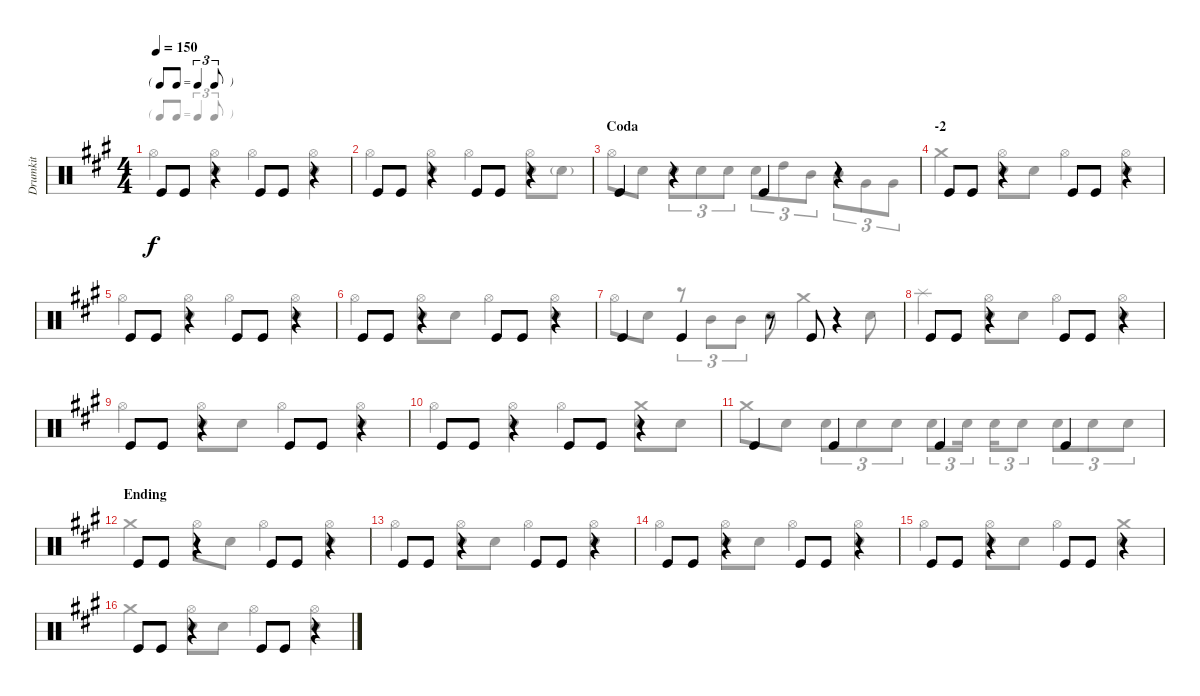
\track ("Drumkit" "Drumkit") {instrument percussion}
\staff {score}
\articulation defaults
\voice
\ts (4 4)
\tf triplet8th
\tempo 150
\clef neutral
\ks a "Kick (hit)".8{dy f} "Kick (hit)".8
r.4 "Kick (hit)".8 "Kick (hit)".8 r.4 |
"Kick (hit)".8 "Kick (hit)".8 r.4 "Kick (hit)".8 "Kick (hit)".8 r.4 |
\section ("" "Coda")
"Kick (hit)".4 r.4 "Kick (hit)".4 r.4 |
\section ("" "-2")
"Kick (hit)".8 "Kick (hit)".8 r.4 "Kick (hit)".8 "Kick (hit)".8 r.4 |
"Kick (hit)".8 "Kick (hit)".8 r.4 "Kick (hit)".8 "Kick (hit)".8 r.4 |
"Kick (hit)".8 "Kick (hit)".8 r.4 "Kick (hit)".8 "Kick (hit)".8 r.4 |
"Kick (hit)".4 "Kick (hit)".4 r.8 "Kick (hit)".8 r.4 |
"Kick (hit)".8 "Kick (hit)".8 r.4 "Kick (hit)".8 "Kick (hit)".8 r.4 |
"Kick (hit)".8 "Kick (hit)".8 r.4 "Kick (hit)".8 "Kick (hit)".8 r.4 |
"Kick (hit)".8 "Kick (hit)".8 r.4 "Kick (hit)".8 "Kick (hit)".8 r.4 |
"Kick (hit)".4 "Kick (hit)".4 "Kick (hit)".4 "Kick (hit)".4 |
\section ("" "Ending")
"Kick (hit)".8 "Kick (hit)".8 r.4 "Kick (hit)".8 "Kick (hit)".8 r.4 |
"Kick (hit)".8 "Kick (hit)".8 r.4 "Kick (hit)".8 "Kick (hit)".8 r.4 |
"Kick (hit)".8 "Kick (hit)".8 r.4 "Kick (hit)".8 "Kick (hit)".8 r.4 |
"Kick (hit)".8 "Kick (hit)".8 r.4 "Kick (hit)".8 "Kick (hit)".8 r.4 |
"Kick (hit)".8 "Kick (hit)".8 r.4 "Kick (hit)".8 "Kick (hit)".8 r.4
\voice
\clef neutral
\ottava regular
\simile none
\ks a "Hi-Hat (open)".4{dy f}
("Hi-Hat (open)" "Snare (hit) 2").4 "Hi-Hat (open)".4 ("Hi-Hat (open)" "Snare (hit) 2").4 |
"Hi-Hat (open)".4 ("Hi-Hat (open)" "Snare (hit) 2").4 "Hi-Hat (open)".4 ("Hi-Hat (open)" "Snare (hit) 2").8 "Snare (hit) 2"{g}.8 |
"Hi-Hat (open)".8 "Snare (hit) 2".8 "Snare (hit) 2".8{tu (3 2)} "Snare (hit) 2".8{tu (3 2)} "Snare (hit) 2".8{tu (3 2)} "Snare (hit) 2".8{tu (3 2)} "High Tom (hit)".8{tu (3 2)} "Mid Tom (hit)".8{tu (3 2)} "Mid Tom (hit)".8{tu (3 2)} "Very Low Tom (hit)".8{tu (3 2)} "Very Low Tom (hit)".8{tu (3 2)} |
"Crash medium (hit)".4 ("Hi-Hat (open)" "Snare (hit) 2").8 "Snare (hit) 2".8 "Hi-Hat (open)".4 ("Hi-Hat (open)" "Snare (hit) 2").4 |
"Hi-Hat (open)".4 ("Hi-Hat (open)" "Snare (hit) 2").4 "Hi-Hat (open)".4 ("Hi-Hat (open)" "Snare (hit) 2").4 |
"Hi-Hat (open)".4 ("Hi-Hat (open)" "Snare (hit) 2").8 "Snare (hit) 2".8 "Hi-Hat (open)".4 ("Hi-Hat (open)" "Snare (hit) 2").4 |
"Hi-Hat (open)".8 "Snare (hit) 2".8 r.8{tu (3 2)} "Mid Tom (hit)".8{tu (3 2)} "Mid Tom (hit)".8{tu (3 2)} "Snare (hit) 2".8 "Crash medium (hit)".4 "Snare (hit) 2".8 |
"Splash (hit)".4 ("Hi-Hat (open)" "Snare (hit) 2").8 "Snare (hit) 2".8 "Hi-Hat (open)".4 ("Hi-Hat (open)" "Snare (hit) 2").4 |
"Hi-Hat (open)".4 ("Hi-Hat (open)" "Snare (hit) 2").8 "Snare (hit) 2".8 "Hi-Hat (open)".4 ("Hi-Hat (open)" "Snare (hit) 2").4 |
"Hi-Hat (open)".4 ("Hi-Hat (open)" "Snare (hit) 2").4 "Hi-Hat (open)".4 ("Crash medium (hit)" "Snare (hit) 2").8 "Snare (hit) 2".8 |
"Crash medium (hit)".8 "Snare (hit) 2".8 "Snare (hit) 2".8{tu (3 2)} "Snare (hit) 2".8{tu (3 2)} "Snare (hit) 2".8{tu (3 2)} "Snare (hit) 2".8{tu (3 2)} "Snare (hit) 2".16{tu (3 2) beam splitsecondary} "Snare (hit) 2".16{tu (3 2)} "Snare (hit) 2".8{tu (3 2)} "Snare (hit) 2".8{tu (3 2)} "Snare (hit) 2".8{tu (3 2)} "Snare (hit) 2".8{tu (3 2)} |
"Crash medium (hit)".4 "Hi-Hat (open)".8 "Snare (hit) 2".8 "Hi-Hat (open)".4 ("Hi-Hat (open)" "Snare (hit) 2").4 |
"Hi-Hat (open)".4 ("Hi-Hat (open)" "Snare (hit) 2").8 "Snare (hit) 2".8 "Hi-Hat (open)".4 ("Hi-Hat (open)" "Snare (hit) 2").4 |
"Hi-Hat (open)".4 ("Hi-Hat (open)" "Snare (hit) 2").8 "Snare (hit) 2".8 "Hi-Hat (open)".4 ("Hi-Hat (open)" "Snare (hit) 2").4 |
"Hi-Hat (open)".4 ("Hi-Hat (open)" "Snare (hit) 2").8 "Snare (hit) 2".8 "Hi-Hat (open)".4 ("Snare (hit) 2" "Crash medium (hit)").4 |
"Crash medium (hit)".4 ("Hi-Hat (open)" "Snare (hit) 2").8 "Snare (hit) 2".8 "Hi-Hat (open)".4 ("Hi-Hat (open)" "Snare (hit) 2").4
